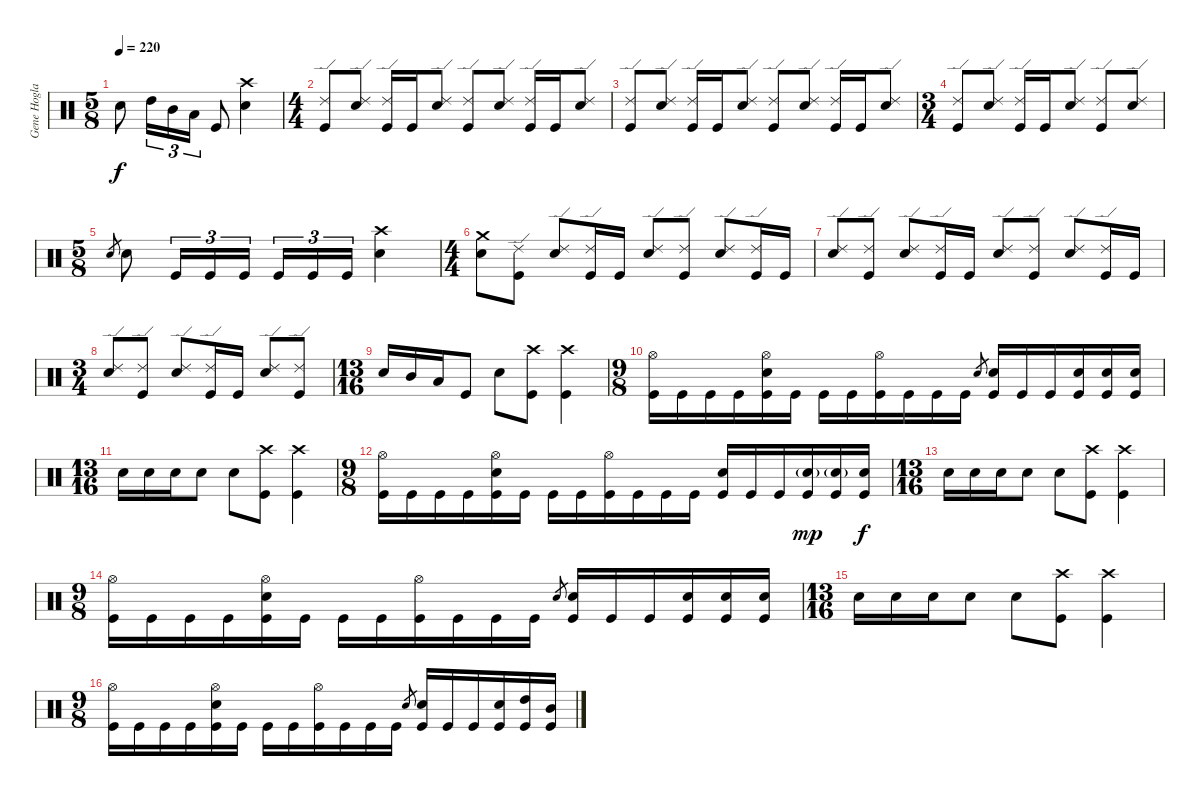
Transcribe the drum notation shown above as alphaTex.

\track ("Gene Hoglan" "Gene Hogla") {instrument percussion}
\staff {score}
\articulation defaults
\ts (5 8)
\tempo 220
\clef neutral
\ks c "Electric Snare (hit)".8{dy f} "High Tom (hit)".16{tu (3 2)} "Mid Tom (hit)".16{tu (3 2)} "Low Tom (hit)".16{tu (3 2)} "Kick (hit)".8
("Crash high (hit)" "Electric Snare (hit)").4 |
\ts (4 4)
("Ride (edge) 2" "Kick (hit)").8 ("Ride (edge) 2" "Electric Snare (hit)").8 ("Ride (edge) 2" "Kick (hit)").16 "Kick (hit)".16 ("Ride (edge) 2" "Electric Snare (hit)").8 ("Ride (edge) 2" "Kick (hit)").8 ("Ride (edge) 2" "Electric Snare (hit)").8 ("Ride (edge) 2" "Kick (hit)").16 "Kick (hit)".16 ("Ride (edge) 2" "Electric Snare (hit)").8 |
("Ride (edge) 2" "Kick (hit)").8 ("Ride (edge) 2" "Electric Snare (hit)").8 ("Ride (edge) 2" "Kick (hit)").16 "Kick (hit)".16 ("Ride (edge) 2" "Electric Snare (hit)").8 ("Ride (edge) 2" "Kick (hit)").8 ("Ride (edge) 2" "Electric Snare (hit)").8 ("Ride (edge) 2" "Kick (hit)").16 "Kick (hit)".16 ("Ride (edge) 2" "Electric Snare (hit)").8 |
\ts (3 4)
("Ride (edge) 2" "Kick (hit)").8 ("Ride (edge) 2" "Electric Snare (hit)").8 ("Ride (edge) 2" "Kick (hit)").16 "Kick (hit)".16 ("Ride (edge) 2" "Electric Snare (hit)").8 ("Ride (edge) 2" "Kick (hit)").8 ("Ride (edge) 2" "Electric Snare (hit)").8 |
\ts (5 8)
"Electric Snare (hit)".8{gr} "Electric Snare (hit)".8 "Kick (hit)".16{tu (3 2)} "Kick (hit)".16{tu (3 2)} "Kick (hit)".16{tu (3 2)} "Kick (hit)".16{tu (3 2)} "Kick (hit)".16{tu (3 2)} "Kick (hit)".16{tu (3 2)} ("Crash high (hit)" "Electric Snare (hit)").4 |
\ts (4 4)
("Crash medium (hit)" "Electric Snare (hit)").8 ("Ride (edge) 2" "Kick (hit)").8 ("Ride (edge) 2" "Electric Snare (hit)").8 ("Ride (edge) 2" "Kick (hit)").16 "Kick (hit)".16 ("Ride (edge) 2" "Electric Snare (hit)").8 ("Ride (edge) 2" "Kick (hit)").8 ("Ride (edge) 2" "Electric Snare (hit)").8 ("Ride (edge) 2" "Kick (hit)").16 "Kick (hit)".16 |
("Ride (edge) 2" "Electric Snare (hit)").8 ("Ride (edge) 2" "Kick (hit)").8 ("Ride (edge) 2" "Electric Snare (hit)").8 ("Ride (edge) 2" "Kick (hit)").16 "Kick (hit)".16 ("Ride (edge) 2" "Electric Snare (hit)").8 ("Ride (edge) 2" "Kick (hit)").8 ("Ride (edge) 2" "Electric Snare (hit)").8 ("Ride (edge) 2" "Kick (hit)").16 "Kick (hit)".16 |
\ts (3 4)
("Ride (edge) 2" "Electric Snare (hit)").8 ("Ride (edge) 2" "Kick (hit)").8 ("Ride (edge) 2" "Electric Snare (hit)").8 ("Ride (edge) 2" "Kick (hit)").16 "Kick (hit)".16 ("Ride (edge) 2" "Electric Snare (hit)").8 ("Ride (edge) 2" "Kick (hit)").8 |
\ts (13 16)
"Electric Snare (hit)".16 "Mid Tom (hit)".16 "Low Tom (hit)".16 "Kick (hit)".8 "Electric Snare (hit)".8 ("Crash high (hit)" "Kick (hit)").8 ("Crash high (hit)" "Kick (hit)").4 |
\ts (9 8)
("Hi-Hat (open)" "Kick (hit)").16 "Kick (hit)".16 "Kick (hit)".16 "Kick (hit)".16 ("Hi-Hat (open)" "Electric Snare (hit)" "Kick (hit)").16 "Kick (hit)".16 "Kick (hit)".16 "Kick (hit)".16 ("Hi-Hat (open)" "Kick (hit)").16 "Kick (hit)".16 "Kick (hit)".16 "Kick (hit)".16 "Electric Snare (hit)".8{gr} ("Electric Snare (hit)" "Kick (hit)").16 "Kick (hit)".16 "Kick (hit)".16 ("Electric Snare (hit)" "Kick (hit)").16 ("Electric Snare (hit)" "Kick (hit)").16 ("Electric Snare (hit)" "Kick (hit)").16 |
\ts (13 16)
"Electric Snare (hit)".16 "Electric Snare (hit)".16 "Electric Snare (hit)".16 "Electric Snare (hit)".8 "Electric Snare (hit)".8 ("Crash high (hit)" "Kick (hit)").8 ("Crash high (hit)" "Kick (hit)").4 |
\ts (9 8)
("Hi-Hat (open)" "Kick (hit)").16 "Kick (hit)".16 "Kick (hit)".16 "Kick (hit)".16 ("Hi-Hat (open)" "Electric Snare (hit)" "Kick (hit)").16 "Kick (hit)".16 "Kick (hit)".16 "Kick (hit)".16 ("Hi-Hat (open)" "Kick (hit)").16 "Kick (hit)".16 "Kick (hit)".16 "Kick (hit)".16 ("Electric Snare (hit)" "Kick (hit)").16 "Kick (hit)".16 "Kick (hit)".16 ("Electric Snare (hit)"{g} "Kick (hit)").16{dy mp} ("Electric Snare (hit)"{g} "Kick (hit)").16 ("Electric Snare (hit)" "Kick (hit)").16{dy f} |
\ts (13 16)
"Electric Snare (hit)".16 "Electric Snare (hit)".16 "Electric Snare (hit)".16 "Electric Snare (hit)".8 "Electric Snare (hit)".8 ("Crash high (hit)" "Kick (hit)").8 ("Crash high (hit)" "Kick (hit)").4 |
\ts (9 8)
("Hi-Hat (open)" "Kick (hit)").16 "Kick (hit)".16 "Kick (hit)".16 "Kick (hit)".16 ("Hi-Hat (open)" "Electric Snare (hit)" "Kick (hit)").16 "Kick (hit)".16 "Kick (hit)".16 "Kick (hit)".16 ("Hi-Hat (open)" "Kick (hit)").16 "Kick (hit)".16 "Kick (hit)".16 "Kick (hit)".16 "Electric Snare (hit)".8{gr} ("Electric Snare (hit)" "Kick (hit)").16 "Kick (hit)".16 "Kick (hit)".16 ("Electric Snare (hit)" "Kick (hit)").16 ("Electric Snare (hit)" "Kick (hit)").16 ("Electric Snare (hit)" "Kick (hit)").16 |
\ts (13 16)
"Electric Snare (hit)".16 "Electric Snare (hit)".16 "Electric Snare (hit)".16 "Electric Snare (hit)".8 "Electric Snare (hit)".8 ("Crash high (hit)" "Kick (hit)").8 ("Crash high (hit)" "Kick (hit)").4 |
\ts (9 8)
("Hi-Hat (open)" "Kick (hit)").16 "Kick (hit)".16 "Kick (hit)".16 "Kick (hit)".16 ("Hi-Hat (open)" "Electric Snare (hit)" "Kick (hit)").16 "Kick (hit)".16 "Kick (hit)".16 "Kick (hit)".16 ("Hi-Hat (open)" "Kick (hit)").16 "Kick (hit)".16 "Kick (hit)".16 "Kick (hit)".16 "Electric Snare (hit)".8{gr} ("Electric Snare (hit)" "Kick (hit)").16 "Kick (hit)".16 "Kick (hit)".16 ("Electric Snare (hit)" "Kick (hit)").16 ("High Tom (hit)" "Kick (hit)").16 ("Mid Tom (hit)" "Kick (hit)").16
